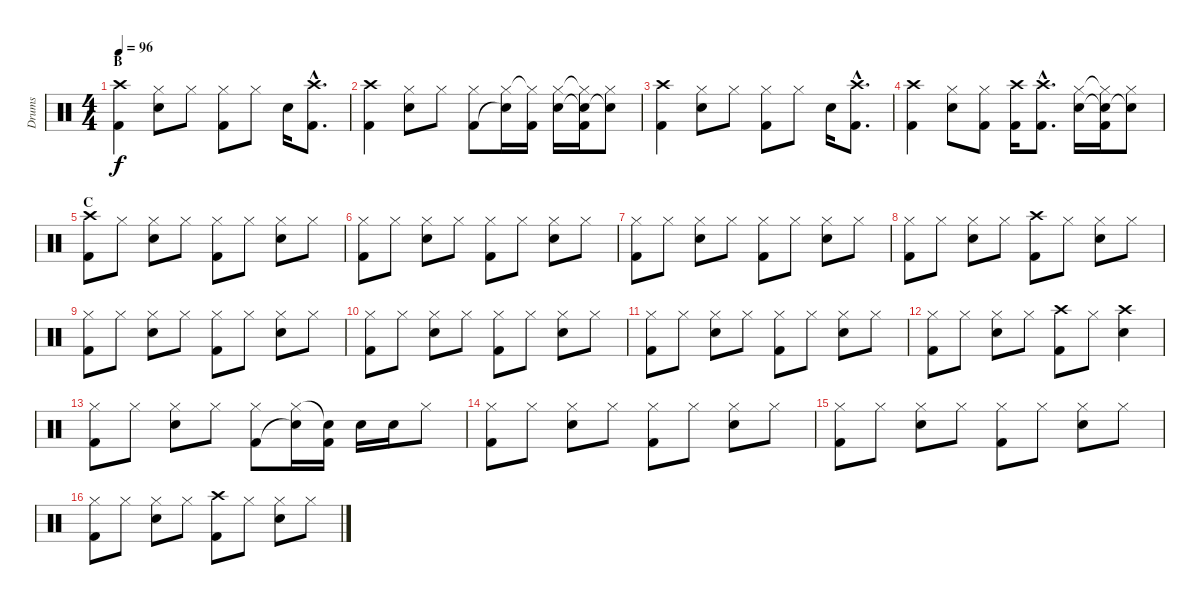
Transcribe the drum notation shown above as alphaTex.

\track ("Drums" "Drums") {instrument percussion}
\staff {score}
\articulation defaults
\ts (4 4)
\section ("" "B")
\tempo 96
\clef neutral
\ks c
("Crash high (hit)" "Kick (hit) 2").4{dy f} ("Hi-Hat (closed)" "Snare (hit) 2").8 "Hi-Hat (closed)".8 ("Hi-Hat (closed)" "Kick (hit) 2").8 "Hi-Hat (closed)".8 "Snare (hit) 2".16 ("Crash high (hit)"{hac} "Kick (hit) 2"{hac}).8{d} |
("Crash high (hit)" "Kick (hit) 2").4 ("Hi-Hat (closed)" "Snare (hit) 2").8 "Hi-Hat (closed)".8 ("Hi-Hat (closed)" "Kick (hit) 2").8 ("Hi-Hat (closed)" "Snare (hit)"{t}).16 ("Hi-Hat (closed)"{t} "Kick (hit) 2").16 ("Hi-Hat (closed)" "Snare (hit) 2").16 ("Hi-Hat (closed)"{t} "Snare (hit)"{t} "Kick (hit) 2").16 ("Hi-Hat (closed)" "Snare (hit)"{t}).8 |
("Crash high (hit)" "Kick (hit) 2").4 ("Hi-Hat (closed)" "Snare (hit) 2").8 "Hi-Hat (closed)".8 ("Hi-Hat (closed)" "Kick (hit) 2").8 "Hi-Hat (closed)".8 "Snare (hit) 2".16 ("Crash high (hit)"{hac} "Kick (hit) 2"{hac}).8{d} |
("Crash high (hit)" "Kick (hit) 2").4 ("Hi-Hat (closed)" "Snare (hit) 2").8 ("Hi-Hat (closed)" "Kick (hit) 2").8 ("Crash high (hit)" "Kick (hit) 2").16 ("Crash high (hit)"{hac} "Kick (hit) 2"{hac}).8{d} ("Hi-Hat (closed)" "Snare (hit) 2").16 ("Hi-Hat (closed)"{t} "Snare (hit)"{t} "Kick (hit) 2").16 ("Hi-Hat (closed)" "Snare (hit)"{t}).8 |
\section ("" "C")
("Crash high (hit)" "Kick (hit) 2").8 "Hi-Hat (closed)".8 ("Hi-Hat (closed)" "Snare (hit) 2").8 "Hi-Hat (closed)".8 ("Hi-Hat (closed)" "Kick (hit) 2").8 "Hi-Hat (closed)".8 ("Hi-Hat (closed)" "Snare (hit) 2").8 "Hi-Hat (closed)".8 |
("Hi-Hat (closed)" "Kick (hit) 2").8 "Hi-Hat (closed)".8 ("Hi-Hat (closed)" "Snare (hit) 2").8 "Hi-Hat (closed)".8 ("Hi-Hat (closed)" "Kick (hit) 2").8 "Hi-Hat (closed)".8 ("Hi-Hat (closed)" "Snare (hit) 2").8 "Hi-Hat (closed)".8 |
("Hi-Hat (closed)" "Kick (hit) 2").8 "Hi-Hat (closed)".8 ("Hi-Hat (closed)" "Snare (hit) 2").8 "Hi-Hat (closed)".8 ("Hi-Hat (closed)" "Kick (hit) 2").8 "Hi-Hat (closed)".8 ("Hi-Hat (closed)" "Snare (hit) 2").8 "Hi-Hat (closed)".8 |
("Hi-Hat (closed)" "Kick (hit) 2").8 "Hi-Hat (closed)".8 ("Hi-Hat (closed)" "Snare (hit) 2").8 "Hi-Hat (closed)".8 ("Crash high (hit)" "Kick (hit) 2").8 "Hi-Hat (closed)".8 ("Hi-Hat (closed)" "Snare (hit) 2").8 "Hi-Hat (closed)".8 |
("Hi-Hat (closed)" "Kick (hit) 2").8 "Hi-Hat (closed)".8 ("Hi-Hat (closed)" "Snare (hit) 2").8 "Hi-Hat (closed)".8 ("Hi-Hat (closed)" "Kick (hit) 2").8 "Hi-Hat (closed)".8 ("Hi-Hat (closed)" "Snare (hit) 2").8 "Hi-Hat (closed)".8 |
("Hi-Hat (closed)" "Kick (hit) 2").8 "Hi-Hat (closed)".8 ("Hi-Hat (closed)" "Snare (hit) 2").8 "Hi-Hat (closed)".8 ("Hi-Hat (closed)" "Kick (hit) 2").8 "Hi-Hat (closed)".8 ("Hi-Hat (closed)" "Snare (hit) 2").8 "Hi-Hat (closed)".8 |
("Hi-Hat (closed)" "Kick (hit) 2").8 "Hi-Hat (closed)".8 ("Hi-Hat (closed)" "Snare (hit) 2").8 "Hi-Hat (closed)".8 ("Hi-Hat (closed)" "Kick (hit) 2").8 "Hi-Hat (closed)".8 ("Hi-Hat (closed)" "Snare (hit) 2").8 "Hi-Hat (closed)".8 |
("Hi-Hat (closed)" "Kick (hit) 2").8 "Hi-Hat (closed)".8 ("Hi-Hat (closed)" "Snare (hit) 2").8 "Hi-Hat (closed)".8 ("Crash high (hit)" "Kick (hit) 2").8 "Hi-Hat (closed)".8 ("Crash high (hit)" "Snare (hit) 2").4 |
("Hi-Hat (closed)" "Kick (hit) 2").8 "Hi-Hat (closed)".8 ("Hi-Hat (closed)" "Snare (hit) 2").8 "Hi-Hat (closed)".8 ("Hi-Hat (closed)" "Kick (hit) 2").8 ("Hi-Hat (closed)" "Snare (hit)"{t}).16 ("Snare (hit)"{t} "Kick (hit) 2").16 "Snare (hit) 2".16 "Snare (hit) 2".16 "Hi-Hat (closed)".8 |
("Hi-Hat (closed)" "Kick (hit) 2").8 "Hi-Hat (closed)".8 ("Hi-Hat (closed)" "Snare (hit) 2").8 "Hi-Hat (closed)".8 ("Hi-Hat (closed)" "Kick (hit) 2").8 "Hi-Hat (closed)".8 ("Hi-Hat (closed)" "Snare (hit) 2").8 "Hi-Hat (closed)".8 |
("Hi-Hat (closed)" "Kick (hit) 2").8 "Hi-Hat (closed)".8 ("Hi-Hat (closed)" "Snare (hit) 2").8 "Hi-Hat (closed)".8 ("Hi-Hat (closed)" "Kick (hit) 2").8 "Hi-Hat (closed)".8 ("Hi-Hat (closed)" "Snare (hit) 2").8 "Hi-Hat (closed)".8 |
("Hi-Hat (closed)" "Kick (hit) 2").8 "Hi-Hat (closed)".8 ("Hi-Hat (closed)" "Snare (hit) 2").8 "Hi-Hat (closed)".8 ("Crash high (hit)" "Kick (hit) 2").8 "Hi-Hat (closed)".8 ("Hi-Hat (closed)" "Snare (hit) 2").8 "Hi-Hat (closed)".8
